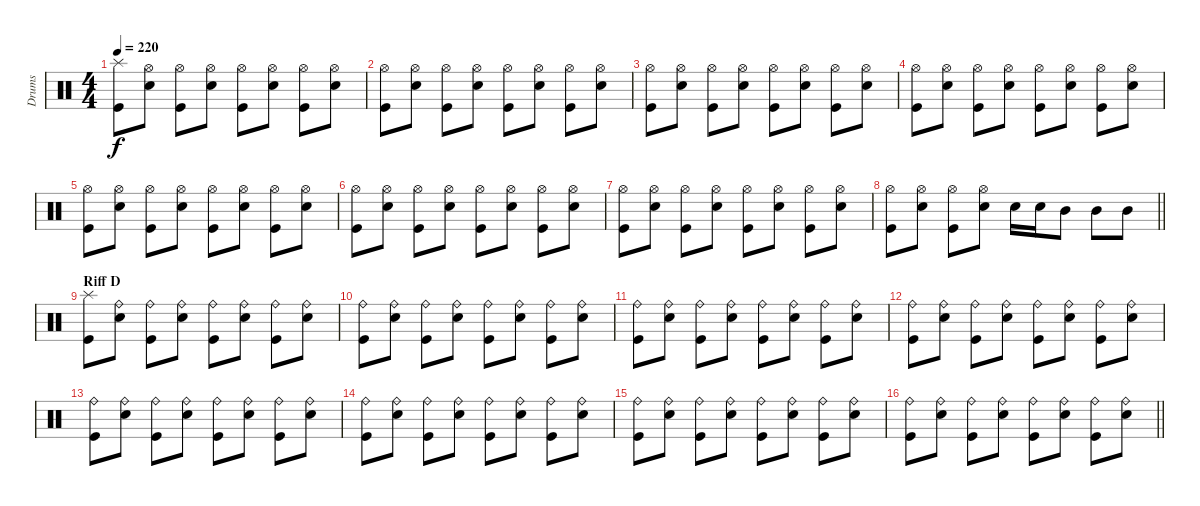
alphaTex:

\track ("Drums" "Drums") {instrument percussion}
\staff {score}
\articulation defaults
\ts (4 4)
\tempo 220
\clef neutral
\ks c
("Kick (hit)" "Splash (hit)").8{dy f} ("Electric Snare (hit)" "Hi-Hat (open)").8 ("Kick (hit)" "Hi-Hat (open)").8 ("Electric Snare (hit)" "Hi-Hat (open)").8 ("Kick (hit)" "Hi-Hat (open)").8 ("Electric Snare (hit)" "Hi-Hat (open)").8 ("Kick (hit)" "Hi-Hat (open)").8 ("Electric Snare (hit)" "Hi-Hat (open)").8 |
("Kick (hit)" "Hi-Hat (open)").8 ("Electric Snare (hit)" "Hi-Hat (open)").8 ("Kick (hit)" "Hi-Hat (open)").8 ("Electric Snare (hit)" "Hi-Hat (open)").8 ("Kick (hit)" "Hi-Hat (open)").8 ("Electric Snare (hit)" "Hi-Hat (open)").8 ("Kick (hit)" "Hi-Hat (open)").8 ("Electric Snare (hit)" "Hi-Hat (open)").8 |
("Kick (hit)" "Hi-Hat (open)").8 ("Electric Snare (hit)" "Hi-Hat (open)").8 ("Kick (hit)" "Hi-Hat (open)").8 ("Electric Snare (hit)" "Hi-Hat (open)").8 ("Kick (hit)" "Hi-Hat (open)").8 ("Electric Snare (hit)" "Hi-Hat (open)").8 ("Kick (hit)" "Hi-Hat (open)").8 ("Electric Snare (hit)" "Hi-Hat (open)").8 |
("Kick (hit)" "Hi-Hat (open)").8 ("Electric Snare (hit)" "Hi-Hat (open)").8 ("Kick (hit)" "Hi-Hat (open)").8 ("Electric Snare (hit)" "Hi-Hat (open)").8 ("Kick (hit)" "Hi-Hat (open)").8 ("Electric Snare (hit)" "Hi-Hat (open)").8 ("Kick (hit)" "Hi-Hat (open)").8 ("Electric Snare (hit)" "Hi-Hat (open)").8 |
("Kick (hit)" "Hi-Hat (open)").8 ("Electric Snare (hit)" "Hi-Hat (open)").8 ("Kick (hit)" "Hi-Hat (open)").8 ("Electric Snare (hit)" "Hi-Hat (open)").8 ("Kick (hit)" "Hi-Hat (open)").8 ("Electric Snare (hit)" "Hi-Hat (open)").8 ("Kick (hit)" "Hi-Hat (open)").8 ("Electric Snare (hit)" "Hi-Hat (open)").8 |
("Kick (hit)" "Hi-Hat (open)").8 ("Electric Snare (hit)" "Hi-Hat (open)").8 ("Kick (hit)" "Hi-Hat (open)").8 ("Electric Snare (hit)" "Hi-Hat (open)").8 ("Kick (hit)" "Hi-Hat (open)").8 ("Electric Snare (hit)" "Hi-Hat (open)").8 ("Kick (hit)" "Hi-Hat (open)").8 ("Electric Snare (hit)" "Hi-Hat (open)").8 |
("Kick (hit)" "Hi-Hat (open)").8 ("Electric Snare (hit)" "Hi-Hat (open)").8 ("Kick (hit)" "Hi-Hat (open)").8 ("Electric Snare (hit)" "Hi-Hat (open)").8 ("Kick (hit)" "Hi-Hat (open)").8 ("Electric Snare (hit)" "Hi-Hat (open)").8 ("Kick (hit)" "Hi-Hat (open)").8 ("Electric Snare (hit)" "Hi-Hat (open)").8 |
\barLineRight lightlight
("Kick (hit)" "Hi-Hat (open)").8 ("Electric Snare (hit)" "Hi-Hat (open)").8 ("Kick (hit)" "Hi-Hat (open)").8 ("Electric Snare (hit)" "Hi-Hat (open)").8 "Electric Snare (hit)".16 "Electric Snare (hit)".16 "Mid Tom (hit)".8 "Mid Tom (hit)".8 "Mid Tom (hit)".8 |
\section ("" "Riff D")
("Kick (hit)" "Splash (hit)").8 ("Electric Snare (hit)" "Ride (bell)").8 ("Kick (hit)" "Ride (bell)").8 ("Electric Snare (hit)" "Ride (bell)").8 ("Kick (hit)" "Ride (bell)").8 ("Electric Snare (hit)" "Ride (bell)").8 ("Kick (hit)" "Ride (bell)").8 ("Electric Snare (hit)" "Ride (bell)").8 |
("Kick (hit)" "Ride (bell)").8 ("Electric Snare (hit)" "Ride (bell)").8 ("Kick (hit)" "Ride (bell)").8 ("Electric Snare (hit)" "Ride (bell)").8 ("Kick (hit)" "Ride (bell)").8 ("Electric Snare (hit)" "Ride (bell)").8 ("Kick (hit)" "Ride (bell)").8 ("Electric Snare (hit)" "Ride (bell)").8 |
("Kick (hit)" "Ride (bell)").8 ("Electric Snare (hit)" "Ride (bell)").8 ("Kick (hit)" "Ride (bell)").8 ("Electric Snare (hit)" "Ride (bell)").8 ("Kick (hit)" "Ride (bell)").8 ("Electric Snare (hit)" "Ride (bell)").8 ("Kick (hit)" "Ride (bell)").8 ("Electric Snare (hit)" "Ride (bell)").8 |
("Kick (hit)" "Ride (bell)").8 ("Electric Snare (hit)" "Ride (bell)").8 ("Kick (hit)" "Ride (bell)").8 ("Electric Snare (hit)" "Ride (bell)").8 ("Kick (hit)" "Ride (bell)").8 ("Electric Snare (hit)" "Ride (bell)").8 ("Kick (hit)" "Ride (bell)").8 ("Electric Snare (hit)" "Ride (bell)").8 |
("Kick (hit)" "Ride (bell)").8 ("Electric Snare (hit)" "Ride (bell)").8 ("Kick (hit)" "Ride (bell)").8 ("Electric Snare (hit)" "Ride (bell)").8 ("Kick (hit)" "Ride (bell)").8 ("Electric Snare (hit)" "Ride (bell)").8 ("Kick (hit)" "Ride (bell)").8 ("Electric Snare (hit)" "Ride (bell)").8 |
("Kick (hit)" "Ride (bell)").8 ("Electric Snare (hit)" "Ride (bell)").8 ("Kick (hit)" "Ride (bell)").8 ("Electric Snare (hit)" "Ride (bell)").8 ("Kick (hit)" "Ride (bell)").8 ("Electric Snare (hit)" "Ride (bell)").8 ("Kick (hit)" "Ride (bell)").8 ("Electric Snare (hit)" "Ride (bell)").8 |
("Kick (hit)" "Ride (bell)").8 ("Electric Snare (hit)" "Ride (bell)").8 ("Kick (hit)" "Ride (bell)").8 ("Electric Snare (hit)" "Ride (bell)").8 ("Kick (hit)" "Ride (bell)").8 ("Electric Snare (hit)" "Ride (bell)").8 ("Kick (hit)" "Ride (bell)").8 ("Electric Snare (hit)" "Ride (bell)").8 |
\barLineRight lightlight
("Kick (hit)" "Ride (bell)").8 ("Electric Snare (hit)" "Ride (bell)").8 ("Kick (hit)" "Ride (bell)").8 ("Electric Snare (hit)" "Ride (bell)").8 ("Kick (hit)" "Ride (bell)").8 ("Electric Snare (hit)" "Ride (bell)").8 ("Kick (hit)" "Ride (bell)").8 ("Electric Snare (hit)" "Ride (bell)").8
